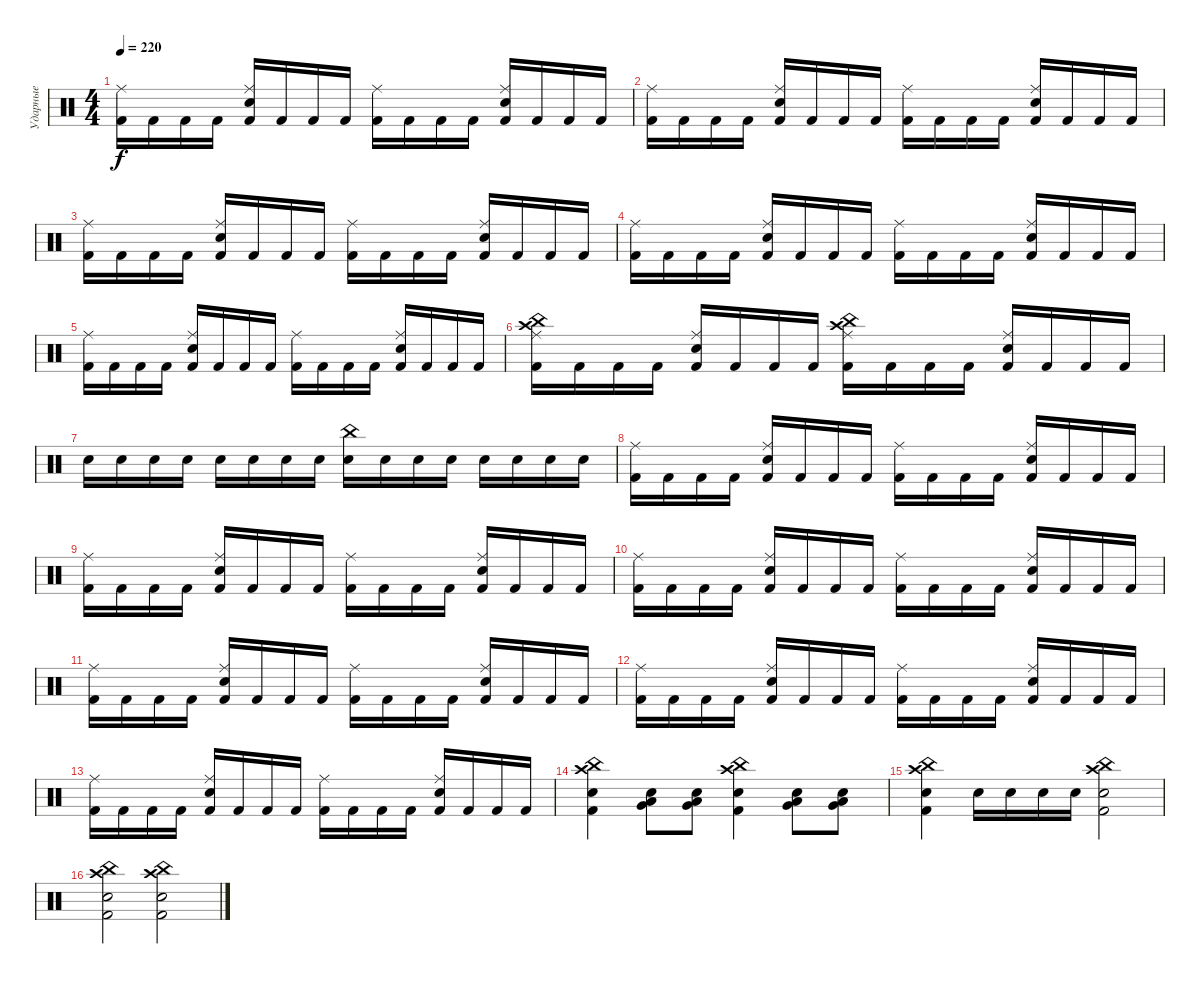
\track ("Ударные" "Ударные") {instrument percussion}
\staff {score}
\articulation defaults
\ts (4 4)
\tempo 220
\clef neutral
\ks c
("Kick (hit) 2" "Ride (middle)").16{dy f} "Kick (hit) 2".16 "Kick (hit) 2".16 "Kick (hit) 2".16 ("Kick (hit) 2" "Ride (middle)" "Electric Snare (hit)").16 "Kick (hit) 2".16 "Kick (hit) 2".16 "Kick (hit) 2".16 ("Kick (hit) 2" "Ride (middle)").16 "Kick (hit) 2".16 "Kick (hit) 2".16 "Kick (hit) 2".16 ("Kick (hit) 2" "Ride (middle)" "Electric Snare (hit)").16 "Kick (hit) 2".16 "Kick (hit) 2".16 "Kick (hit) 2".16 |
("Kick (hit) 2" "Ride (middle)").16 "Kick (hit) 2".16 "Kick (hit) 2".16 "Kick (hit) 2".16 ("Kick (hit) 2" "Ride (middle)" "Electric Snare (hit)").16 "Kick (hit) 2".16 "Kick (hit) 2".16 "Kick (hit) 2".16 ("Kick (hit) 2" "Ride (middle)").16 "Kick (hit) 2".16 "Kick (hit) 2".16 "Kick (hit) 2".16 ("Kick (hit) 2" "Ride (middle)" "Electric Snare (hit)").16 "Kick (hit) 2".16 "Kick (hit) 2".16 "Kick (hit) 2".16 |
("Kick (hit) 2" "Ride (middle)").16 "Kick (hit) 2".16 "Kick (hit) 2".16 "Kick (hit) 2".16 ("Kick (hit) 2" "Ride (middle)" "Electric Snare (hit)").16 "Kick (hit) 2".16 "Kick (hit) 2".16 "Kick (hit) 2".16 ("Kick (hit) 2" "Ride (middle)").16 "Kick (hit) 2".16 "Kick (hit) 2".16 "Kick (hit) 2".16 ("Kick (hit) 2" "Ride (middle)" "Electric Snare (hit)").16 "Kick (hit) 2".16 "Kick (hit) 2".16 "Kick (hit) 2".16 |
("Kick (hit) 2" "Ride (middle)").16 "Kick (hit) 2".16 "Kick (hit) 2".16 "Kick (hit) 2".16 ("Kick (hit) 2" "Ride (middle)" "Electric Snare (hit)").16 "Kick (hit) 2".16 "Kick (hit) 2".16 "Kick (hit) 2".16 ("Kick (hit) 2" "Ride (middle)").16 "Kick (hit) 2".16 "Kick (hit) 2".16 "Kick (hit) 2".16 ("Kick (hit) 2" "Ride (middle)" "Electric Snare (hit)").16 "Kick (hit) 2".16 "Kick (hit) 2".16 "Kick (hit) 2".16 |
("Kick (hit) 2" "Ride (middle)").16 "Kick (hit) 2".16 "Kick (hit) 2".16 "Kick (hit) 2".16 ("Kick (hit) 2" "Ride (middle)" "Electric Snare (hit)").16 "Kick (hit) 2".16 "Kick (hit) 2".16 "Kick (hit) 2".16 ("Kick (hit) 2" "Ride (middle)").16 "Kick (hit) 2".16 "Kick (hit) 2".16 "Kick (hit) 2".16 ("Kick (hit) 2" "Ride (middle)" "Electric Snare (hit)").16 "Kick (hit) 2".16 "Kick (hit) 2".16 "Kick (hit) 2".16 |
("Kick (hit) 2" "Ride (middle)" "China (hit)" "Crash high (hit)").16 "Kick (hit) 2".16 "Kick (hit) 2".16 "Kick (hit) 2".16 ("Kick (hit) 2" "Ride (middle)" "Electric Snare (hit)").16 "Kick (hit) 2".16 "Kick (hit) 2".16 "Kick (hit) 2".16 ("Kick (hit) 2" "Ride (middle)" "Crash high (hit)" "China (hit)").16 "Kick (hit) 2".16 "Kick (hit) 2".16 "Kick (hit) 2".16 ("Kick (hit) 2" "Ride (middle)" "Electric Snare (hit)").16 "Kick (hit) 2".16 "Kick (hit) 2".16 "Kick (hit) 2".16 |
"Electric Snare (hit)".16 "Electric Snare (hit)".16 "Electric Snare (hit)".16 "Electric Snare (hit)".16 "Electric Snare (hit)".16 "Electric Snare (hit)".16 "Electric Snare (hit)".16 "Electric Snare (hit)".16 ("Snare (hit) 2" "China (hit)").16 "Snare (hit) 2".16 "Snare (hit) 2".16 "Snare (hit) 2".16 "Snare (hit) 2".16 "Snare (hit) 2".16 "Snare (hit) 2".16 "Snare (hit) 2".16 |
("Kick (hit) 2" "Ride (middle)").16 "Kick (hit) 2".16 "Kick (hit) 2".16 "Kick (hit) 2".16 ("Kick (hit) 2" "Ride (middle)" "Electric Snare (hit)").16 "Kick (hit) 2".16 "Kick (hit) 2".16 "Kick (hit) 2".16 ("Kick (hit) 2" "Ride (middle)").16 "Kick (hit) 2".16 "Kick (hit) 2".16 "Kick (hit) 2".16 ("Kick (hit) 2" "Ride (middle)" "Electric Snare (hit)").16 "Kick (hit) 2".16 "Kick (hit) 2".16 "Kick (hit) 2".16 |
("Kick (hit) 2" "Ride (middle)").16 "Kick (hit) 2".16 "Kick (hit) 2".16 "Kick (hit) 2".16 ("Kick (hit) 2" "Ride (middle)" "Electric Snare (hit)").16 "Kick (hit) 2".16 "Kick (hit) 2".16 "Kick (hit) 2".16 ("Kick (hit) 2" "Ride (middle)").16 "Kick (hit) 2".16 "Kick (hit) 2".16 "Kick (hit) 2".16 ("Kick (hit) 2" "Ride (middle)" "Electric Snare (hit)").16 "Kick (hit) 2".16 "Kick (hit) 2".16 "Kick (hit) 2".16 |
("Kick (hit) 2" "Ride (middle)").16 "Kick (hit) 2".16 "Kick (hit) 2".16 "Kick (hit) 2".16 ("Kick (hit) 2" "Ride (middle)" "Electric Snare (hit)").16 "Kick (hit) 2".16 "Kick (hit) 2".16 "Kick (hit) 2".16 ("Kick (hit) 2" "Ride (middle)").16 "Kick (hit) 2".16 "Kick (hit) 2".16 "Kick (hit) 2".16 ("Kick (hit) 2" "Ride (middle)" "Electric Snare (hit)").16 "Kick (hit) 2".16 "Kick (hit) 2".16 "Kick (hit) 2".16 |
("Kick (hit) 2" "Ride (middle)").16 "Kick (hit) 2".16 "Kick (hit) 2".16 "Kick (hit) 2".16 ("Kick (hit) 2" "Ride (middle)" "Electric Snare (hit)").16 "Kick (hit) 2".16 "Kick (hit) 2".16 "Kick (hit) 2".16 ("Kick (hit) 2" "Ride (middle)").16 "Kick (hit) 2".16 "Kick (hit) 2".16 "Kick (hit) 2".16 ("Kick (hit) 2" "Ride (middle)" "Electric Snare (hit)").16 "Kick (hit) 2".16 "Kick (hit) 2".16 "Kick (hit) 2".16 |
("Kick (hit) 2" "Ride (middle)").16 "Kick (hit) 2".16 "Kick (hit) 2".16 "Kick (hit) 2".16 ("Kick (hit) 2" "Ride (middle)" "Electric Snare (hit)").16 "Kick (hit) 2".16 "Kick (hit) 2".16 "Kick (hit) 2".16 ("Kick (hit) 2" "Ride (middle)").16 "Kick (hit) 2".16 "Kick (hit) 2".16 "Kick (hit) 2".16 ("Kick (hit) 2" "Ride (middle)" "Electric Snare (hit)").16 "Kick (hit) 2".16 "Kick (hit) 2".16 "Kick (hit) 2".16 |
("Kick (hit) 2" "Ride (middle)").16 "Kick (hit) 2".16 "Kick (hit) 2".16 "Kick (hit) 2".16 ("Kick (hit) 2" "Ride (middle)" "Electric Snare (hit)").16 "Kick (hit) 2".16 "Kick (hit) 2".16 "Kick (hit) 2".16 ("Kick (hit) 2" "Ride (middle)").16 "Kick (hit) 2".16 "Kick (hit) 2".16 "Kick (hit) 2".16 ("Kick (hit) 2" "Ride (middle)" "Electric Snare (hit)").16 "Kick (hit) 2".16 "Kick (hit) 2".16 "Kick (hit) 2".16 |
("Kick (hit) 2" "China (hit)" "Crash high (hit)" "Electric Snare (hit)").4 ("Very Low Tom (hit)" "Low Floor Tom (hit)" "Snare (hit) 2").8 ("Very Low Tom (hit)" "Low Floor Tom (hit)" "Snare (hit) 2").8 ("Electric Snare (hit)" "Kick (hit) 2" "Crash high (hit)" "China (hit)").4 ("Low Floor Tom (hit)" "Very Low Tom (hit)" "Snare (hit) 2").8 ("Very Low Tom (hit)" "Low Floor Tom (hit)" "Snare (hit) 2").8 |
("Electric Snare (hit)" "Kick (hit) 2" "Crash high (hit)" "China (hit)").4 "Electric Snare (hit)".16 "Electric Snare (hit)".16 "Electric Snare (hit)".16 "Electric Snare (hit)".16 ("Electric Snare (hit)" "Kick (hit) 2" "China (hit)" "Crash high (hit)").2 |
("Crash high (hit)" "China (hit)" "Kick (hit) 2" "Electric Snare (hit)").2 ("Electric Snare (hit)" "Kick (hit) 2" "Crash high (hit)" "China (hit)").2
